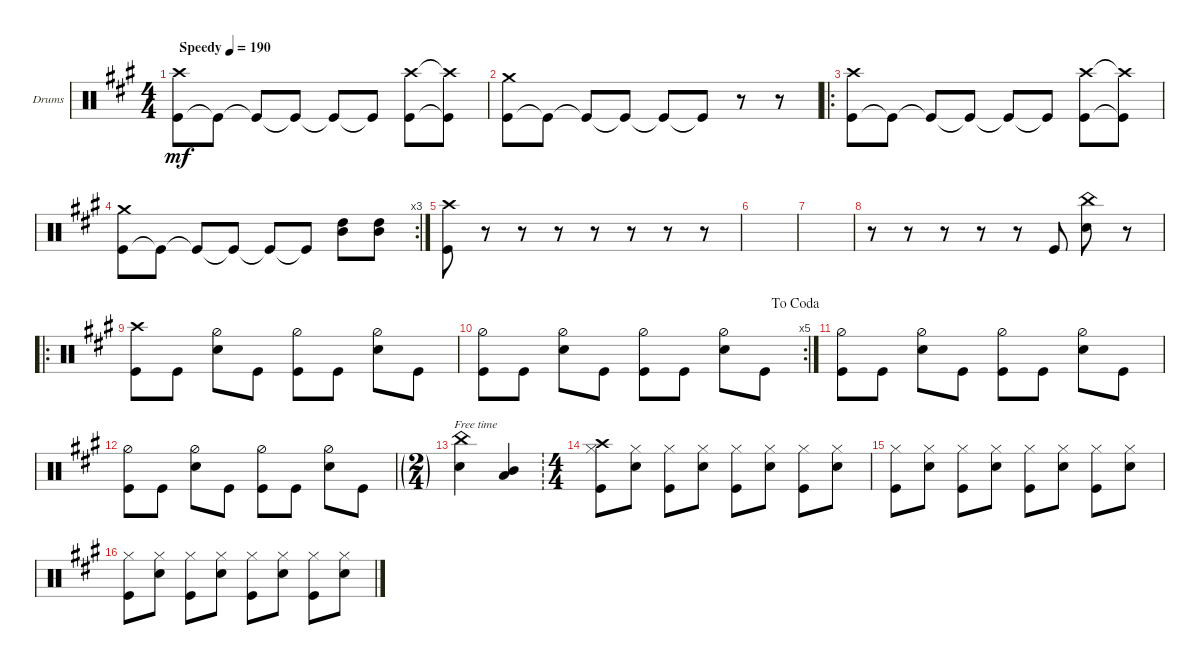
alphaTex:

\defaultSystemsLayout 4
\bracketExtendMode groupsimilarinstruments
\firstSystemTrackNameOrientation horizontal
\otherSystemsTrackNameOrientation horizontal
\track ("Drumkit" "Drums") {instrument percussion}
\staff {score}
\articulation defaults
\ts (4 4)
\tempo (190 "Speedy")
\clef neutral
\ks f#minor
("Kick (hit)" "Crash high (hit)").8{dy mf} "Kick (hit)"{t}.8 "Kick (hit)"{t}.8 "Kick (hit)"{t}.8 "Kick (hit)"{t}.8 "Kick (hit)"{t}.8 ("Kick (hit)" "Crash high (hit)").8 ("Kick (hit)"{t} "Crash high (hit)"{t}).8 |
("Kick (hit)" "Crash medium (hit)").8 "Kick (hit)"{t}.8 "Kick (hit)"{t}.8 "Kick (hit)"{t}.8 "Kick (hit)"{t}.8 "Kick (hit)"{t}.8 r.8 r.8 |
\ro
("Kick (hit)" "Crash high (hit)").8 "Kick (hit)"{t}.8 "Kick (hit)"{t}.8 "Kick (hit)"{t}.8 "Kick (hit)"{t}.8 "Kick (hit)"{t}.8 ("Kick (hit)" "Crash high (hit)").8 ("Kick (hit)"{t} "Crash high (hit)"{t}).8 |
\rc 3
("Kick (hit)" "Crash medium (hit)").8 "Kick (hit)"{t}.8 "Kick (hit)"{t}.8 "Kick (hit)"{t}.8 "Kick (hit)"{t}.8 "Kick (hit)"{t}.8 ("High Tom (hit)" "Mid Tom (hit)").8 ("High Tom (hit)" "Mid Tom (hit)").8 |
("Kick (hit)" "Crash high (hit)").8 r.8 r.8 r.8 r.8 r.8 r.8 r.8 |
|
|
r.8 r.8 r.8 r.8 r.8 "Kick (hit)".8 ("Snare (hit) 2" "China (hit)").8 r.8 |
\ro
("Kick (hit)" "Crash high (hit)").8 "Kick (hit)".8 ("Snare (hit) 2" "Hi-Hat (half)").8 "Kick (hit)".8 ("Kick (hit)" "Hi-Hat (half)").8 "Kick (hit)".8 ("Snare (hit) 2" "Hi-Hat (half)").8 "Kick (hit)".8 |
\rc 5
\jump dacoda
("Kick (hit)" "Hi-Hat (half)").8 "Kick (hit)".8 ("Snare (hit) 2" "Hi-Hat (half)").8 "Kick (hit)".8 ("Kick (hit)" "Hi-Hat (half)").8 "Kick (hit)".8 ("Snare (hit) 2" "Hi-Hat (half)").8 "Kick (hit)".8 |
("Kick (hit)" "Hi-Hat (half)").8 "Kick (hit)".8 ("Snare (hit) 2" "Hi-Hat (half)").8 "Kick (hit)".8 ("Kick (hit)" "Hi-Hat (half)").8 "Kick (hit)".8 ("Snare (hit) 2" "Hi-Hat (half)").8 "Kick (hit)".8 |
("Kick (hit)" "Hi-Hat (half)").8 "Kick (hit)".8 ("Snare (hit) 2" "Hi-Hat (half)").8 "Kick (hit)".8 ("Kick (hit)" "Hi-Hat (half)").8 "Kick (hit)".8 ("Snare (hit) 2" "Hi-Hat (half)").8 "Kick (hit)".8 |
\ts (2 4)
\ft
("Snare (hit) 2" "China (hit)").4 ("Mid Tom (hit)" "Low Tom (hit)").4 |
\ts (4 4)
("Kick (hit)" "Hi-Hat (closed)" "Crash high (hit)").8 ("Snare (hit) 2" "Hi-Hat (closed)").8 ("Kick (hit)" "Hi-Hat (closed)").8 ("Snare (hit) 2" "Hi-Hat (closed)").8 ("Kick (hit)" "Hi-Hat (closed)").8 ("Snare (hit) 2" "Hi-Hat (closed)").8 ("Kick (hit)" "Hi-Hat (closed)").8 ("Snare (hit) 2" "Hi-Hat (closed)").8 |
("Kick (hit)" "Hi-Hat (closed)").8 ("Snare (hit) 2" "Hi-Hat (closed)").8 ("Kick (hit)" "Hi-Hat (closed)").8 ("Snare (hit) 2" "Hi-Hat (closed)").8 ("Kick (hit)" "Hi-Hat (closed)").8 ("Snare (hit) 2" "Hi-Hat (closed)").8 ("Kick (hit)" "Hi-Hat (closed)").8 ("Snare (hit) 2" "Hi-Hat (closed)").8 |
("Kick (hit)" "Hi-Hat (closed)").8 ("Snare (hit) 2" "Hi-Hat (closed)").8 ("Kick (hit)" "Hi-Hat (closed)").8 ("Snare (hit) 2" "Hi-Hat (closed)").8 ("Kick (hit)" "Hi-Hat (closed)").8 ("Snare (hit) 2" "Hi-Hat (closed)").8 ("Kick (hit)" "Hi-Hat (closed)").8 ("Snare (hit) 2" "Hi-Hat (closed)").8
